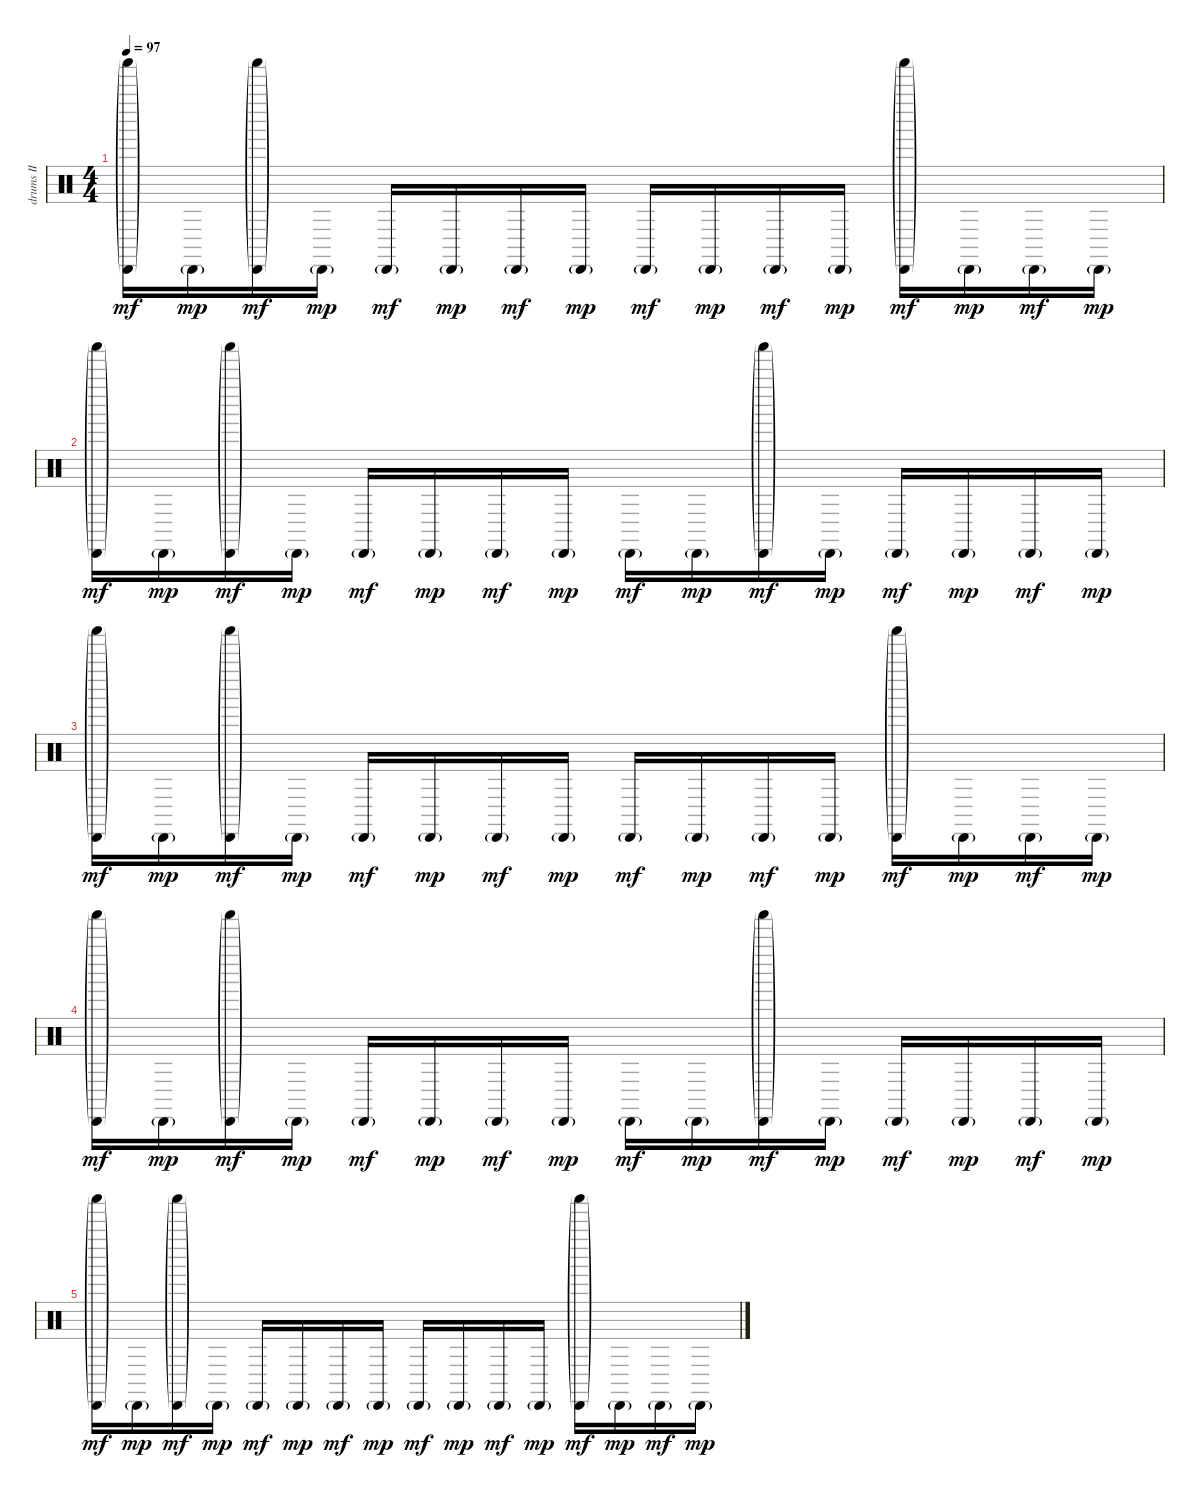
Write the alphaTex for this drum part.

\track ("drums II" "drums II") {instrument percussion}
\staff {score}
\articulation defaults
\ts (4 4)
\tempo 97
\clef neutral
\ks c
("Shaker (hit)"{g} "Cabasa (hit)"{g}).16{dy mf} "Cabasa (hit)"{g}.16{dy mp} ("Shaker (hit)"{g} "Cabasa (hit)"{g}).16{dy mf} "Cabasa (hit)"{g}.16{dy mp} "Cabasa (hit)"{g}.16{dy mf} "Cabasa (hit)"{g}.16{dy mp} "Cabasa (hit)"{g}.16{dy mf} "Cabasa (hit)"{g}.16{dy mp} "Cabasa (hit)"{g}.16{dy mf} "Cabasa (hit)"{g}.16{dy mp} "Cabasa (hit)"{g}.16{dy mf} "Cabasa (hit)"{g}.16{dy mp} ("Shaker (hit)"{g} "Cabasa (hit)"{g}).16{dy mf} "Cabasa (hit)"{g}.16{dy mp} "Cabasa (hit)"{g}.16{dy mf} "Cabasa (hit)"{g}.16{dy mp} |
("Shaker (hit)"{g} "Cabasa (hit)"{g}).16{dy mf} "Cabasa (hit)"{g}.16{dy mp} ("Shaker (hit)"{g} "Cabasa (hit)"{g}).16{dy mf} "Cabasa (hit)"{g}.16{dy mp} "Cabasa (hit)"{g}.16{dy mf} "Cabasa (hit)"{g}.16{dy mp} "Cabasa (hit)"{g}.16{dy mf} "Cabasa (hit)"{g}.16{dy mp} "Cabasa (hit)"{g}.16{dy mf} "Cabasa (hit)"{g}.16{dy mp} ("Shaker (hit)"{g} "Cabasa (hit)"{g}).16{dy mf} "Cabasa (hit)"{g}.16{dy mp} "Cabasa (hit)"{g}.16{dy mf} "Cabasa (hit)"{g}.16{dy mp} "Cabasa (hit)"{g}.16{dy mf} "Cabasa (hit)"{g}.16{dy mp} |
("Shaker (hit)"{g} "Cabasa (hit)"{g}).16{dy mf} "Cabasa (hit)"{g}.16{dy mp} ("Shaker (hit)"{g} "Cabasa (hit)"{g}).16{dy mf} "Cabasa (hit)"{g}.16{dy mp} "Cabasa (hit)"{g}.16{dy mf} "Cabasa (hit)"{g}.16{dy mp} "Cabasa (hit)"{g}.16{dy mf} "Cabasa (hit)"{g}.16{dy mp} "Cabasa (hit)"{g}.16{dy mf} "Cabasa (hit)"{g}.16{dy mp} "Cabasa (hit)"{g}.16{dy mf} "Cabasa (hit)"{g}.16{dy mp} ("Shaker (hit)"{g} "Cabasa (hit)"{g}).16{dy mf} "Cabasa (hit)"{g}.16{dy mp} "Cabasa (hit)"{g}.16{dy mf} "Cabasa (hit)"{g}.16{dy mp} |
("Shaker (hit)"{g} "Cabasa (hit)"{g}).16{dy mf} "Cabasa (hit)"{g}.16{dy mp} ("Shaker (hit)"{g} "Cabasa (hit)"{g}).16{dy mf} "Cabasa (hit)"{g}.16{dy mp} "Cabasa (hit)"{g}.16{dy mf} "Cabasa (hit)"{g}.16{dy mp} "Cabasa (hit)"{g}.16{dy mf} "Cabasa (hit)"{g}.16{dy mp} "Cabasa (hit)"{g}.16{dy mf} "Cabasa (hit)"{g}.16{dy mp} ("Shaker (hit)"{g} "Cabasa (hit)"{g}).16{dy mf} "Cabasa (hit)"{g}.16{dy mp} "Cabasa (hit)"{g}.16{dy mf} "Cabasa (hit)"{g}.16{dy mp} "Cabasa (hit)"{g}.16{dy mf} "Cabasa (hit)"{g}.16{dy mp} |
("Shaker (hit)"{g} "Cabasa (hit)"{g}).16{dy mf} "Cabasa (hit)"{g}.16{dy mp} ("Shaker (hit)"{g} "Cabasa (hit)"{g}).16{dy mf} "Cabasa (hit)"{g}.16{dy mp} "Cabasa (hit)"{g}.16{dy mf} "Cabasa (hit)"{g}.16{dy mp} "Cabasa (hit)"{g}.16{dy mf} "Cabasa (hit)"{g}.16{dy mp} "Cabasa (hit)"{g}.16{dy mf} "Cabasa (hit)"{g}.16{dy mp} "Cabasa (hit)"{g}.16{dy mf} "Cabasa (hit)"{g}.16{dy mp} ("Shaker (hit)"{g} "Cabasa (hit)"{g}).16{dy mf} "Cabasa (hit)"{g}.16{dy mp} "Cabasa (hit)"{g}.16{dy mf} "Cabasa (hit)"{g}.16{dy mp}
